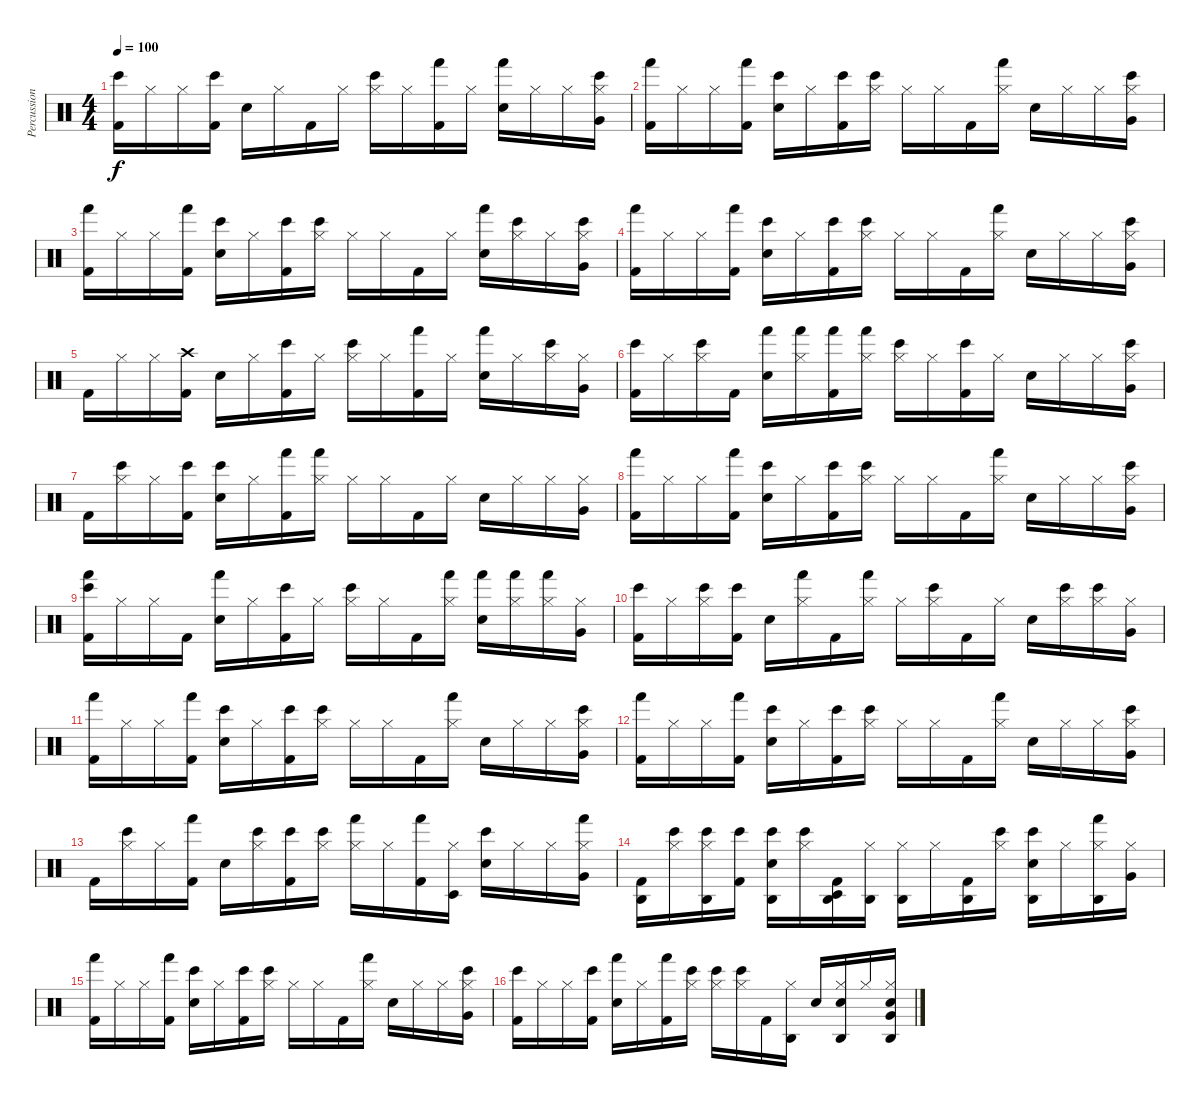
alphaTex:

\track ("Percussions" "Percussion") {instrument percussion}
\staff {score}
\articulation defaults
\ts (4 4)
\tempo 100
\clef neutral
\ks c
("Kick (hit) 2" "Bongo High (hit)").16{dy f} "Hi-Hat (closed)".16 "Hi-Hat (closed)".16 ("Kick (hit) 2" "Bongo High (hit)").16 "Electric Snare (hit)".16 "Hi-Hat (closed)".16 "Kick (hit) 2".16 "Hi-Hat (closed)".16 ("Hi-Hat (closed)" "Bongo High (hit)").16 "Hi-Hat (closed)".16 ("Kick (hit) 2" "Hand (hit)").16 "Hi-Hat (closed)".16 ("Electric Snare (hit)" "Hand (hit)").16 "Hi-Hat (closed)".16 "Hi-Hat (closed)".16 ("Hi-Hat (closed)" "Bongo High (hit)" "Very Low Tom (hit)").16 |
("Kick (hit) 2" "Hand (hit)").16 "Hi-Hat (closed)".16 "Hi-Hat (closed)".16 ("Kick (hit) 2" "Hand (hit)").16 ("Electric Snare (hit)" "Bongo High (hit)").16 "Hi-Hat (closed)".16 ("Kick (hit) 2" "Bongo High (hit)").16 ("Hi-Hat (closed)" "Bongo High (hit)").16 "Hi-Hat (closed)".16 "Hi-Hat (closed)".16 "Kick (hit) 2".16 ("Hi-Hat (closed)" "Hand (hit)").16 "Electric Snare (hit)".16 "Hi-Hat (closed)".16 "Hi-Hat (closed)".16 ("Hi-Hat (closed)" "Bongo High (hit)" "Very Low Tom (hit)").16 |
("Kick (hit) 2" "Hand (hit)").16 "Hi-Hat (closed)".16 "Hi-Hat (closed)".16 ("Kick (hit) 2" "Hand (hit)").16 ("Electric Snare (hit)" "Bongo High (hit)").16 "Hi-Hat (closed)".16 ("Kick (hit) 2" "Bongo High (hit)").16 ("Hi-Hat (closed)" "Bongo High (hit)").16 "Hi-Hat (closed)".16 "Hi-Hat (closed)".16 "Kick (hit) 2".16 "Hi-Hat (closed)".16 ("Electric Snare (hit)" "Hand (hit)").16 ("Hi-Hat (closed)" "Bongo High (hit)").16 "Hi-Hat (closed)".16 ("Hi-Hat (closed)" "Bongo High (hit)" "Very Low Tom (hit)").16 |
("Kick (hit) 2" "Hand (hit)").16 "Hi-Hat (closed)".16 "Hi-Hat (closed)".16 ("Kick (hit) 2" "Hand (hit)").16 ("Electric Snare (hit)" "Bongo High (hit)").16 "Hi-Hat (closed)".16 ("Kick (hit) 2" "Bongo High (hit)").16 ("Hi-Hat (closed)" "Bongo High (hit)").16 "Hi-Hat (closed)".16 "Hi-Hat (closed)".16 "Kick (hit) 2".16 ("Hi-Hat (closed)" "Hand (hit)").16 "Electric Snare (hit)".16 "Hi-Hat (closed)".16 "Hi-Hat (closed)".16 ("Hi-Hat (closed)" "Bongo High (hit)" "Very Low Tom (hit)").16 |
"Kick (hit) 2".16 "Hi-Hat (closed)".16 "Hi-Hat (closed)".16 ("Kick (hit) 2" "Crash high (hit)").16 "Electric Snare (hit)".16 "Hi-Hat (closed)".16 ("Kick (hit) 2" "Bongo High (hit)").16 "Hi-Hat (closed)".16 ("Hi-Hat (closed)" "Bongo High (hit)").16 "Hi-Hat (closed)".16 ("Kick (hit) 2" "Hand (hit)").16 "Hi-Hat (closed)".16 ("Electric Snare (hit)" "Hand (hit)").16 "Hi-Hat (closed)".16 ("Hi-Hat (closed)" "Bongo High (hit)").16 ("Hi-Hat (closed)" "Very Low Tom (hit)").16 |
("Kick (hit) 2" "Bongo High (hit)").16 "Hi-Hat (closed)".16 ("Hi-Hat (closed)" "Bongo High (hit)").16 "Kick (hit) 2".16 ("Electric Snare (hit)" "Hand (hit)").16 ("Hi-Hat (closed)" "Hand (hit)").16 ("Kick (hit) 2" "Hand (hit)").16 ("Hi-Hat (closed)" "Hand (hit)").16 ("Hi-Hat (closed)" "Bongo High (hit)").16 "Hi-Hat (closed)".16 ("Kick (hit) 2" "Bongo High (hit)").16 "Hi-Hat (closed)".16 "Electric Snare (hit)".16 "Hi-Hat (closed)".16 "Hi-Hat (closed)".16 ("Hi-Hat (closed)" "Bongo High (hit)" "Very Low Tom (hit)").16 |
"Kick (hit) 2".16 ("Hi-Hat (closed)" "Bongo High (hit)").16 "Hi-Hat (closed)".16 ("Kick (hit) 2" "Bongo High (hit)").16 ("Electric Snare (hit)" "Bongo High (hit)").16 "Hi-Hat (closed)".16 ("Kick (hit) 2" "Hand (hit)").16 ("Hi-Hat (closed)" "Hand (hit)").16 "Hi-Hat (closed)".16 "Hi-Hat (closed)".16 "Kick (hit) 2".16 "Hi-Hat (closed)".16 "Electric Snare (hit)".16 "Hi-Hat (closed)".16 "Hi-Hat (closed)".16 ("Hi-Hat (closed)" "Very Low Tom (hit)").16 |
("Kick (hit) 2" "Hand (hit)").16 "Hi-Hat (closed)".16 "Hi-Hat (closed)".16 ("Kick (hit) 2" "Hand (hit)").16 ("Electric Snare (hit)" "Bongo High (hit)").16 "Hi-Hat (closed)".16 ("Kick (hit) 2" "Bongo High (hit)").16 ("Hi-Hat (closed)" "Bongo High (hit)").16 "Hi-Hat (closed)".16 "Hi-Hat (closed)".16 "Kick (hit) 2".16 ("Hi-Hat (closed)" "Hand (hit)").16 "Electric Snare (hit)".16 "Hi-Hat (closed)".16 "Hi-Hat (closed)".16 ("Hi-Hat (closed)" "Bongo High (hit)" "Very Low Tom (hit)").16 |
("Kick (hit) 2" "Bongo High (hit)" "Hand (hit)").16 "Hi-Hat (closed)".16 "Hi-Hat (closed)".16 "Kick (hit) 2".16 ("Electric Snare (hit)" "Hand (hit)").16 "Hi-Hat (closed)".16 ("Kick (hit) 2" "Bongo High (hit)").16 "Hi-Hat (closed)".16 ("Hi-Hat (closed)" "Bongo High (hit)").16 "Hi-Hat (closed)".16 "Kick (hit) 2".16 ("Hi-Hat (closed)" "Hand (hit)").16 ("Electric Snare (hit)" "Hand (hit)").16 ("Hi-Hat (closed)" "Hand (hit)").16 ("Hi-Hat (closed)" "Hand (hit)").16 ("Hi-Hat (closed)" "Very Low Tom (hit)").16 |
("Kick (hit) 2" "Bongo High (hit)").16 "Hi-Hat (closed)".16 ("Hi-Hat (closed)" "Bongo High (hit)").16 ("Kick (hit) 2" "Bongo High (hit)").16 "Electric Snare (hit)".16 ("Hi-Hat (closed)" "Hand (hit)").16 "Kick (hit) 2".16 ("Hi-Hat (closed)" "Hand (hit)").16 "Hi-Hat (closed)".16 ("Hi-Hat (closed)" "Bongo High (hit)").16 "Kick (hit) 2".16 "Hi-Hat (closed)".16 "Electric Snare (hit)".16 ("Hi-Hat (closed)" "Bongo High (hit)").16 ("Hi-Hat (closed)" "Bongo High (hit)").16 ("Hi-Hat (closed)" "Very Low Tom (hit)").16 |
("Kick (hit) 2" "Hand (hit)").16 "Hi-Hat (closed)".16 "Hi-Hat (closed)".16 ("Kick (hit) 2" "Hand (hit)").16 ("Electric Snare (hit)" "Bongo High (hit)").16 "Hi-Hat (closed)".16 ("Kick (hit) 2" "Bongo High (hit)").16 ("Hi-Hat (closed)" "Bongo High (hit)").16 "Hi-Hat (closed)".16 "Hi-Hat (closed)".16 "Kick (hit) 2".16 ("Hi-Hat (closed)" "Hand (hit)").16 "Electric Snare (hit)".16 "Hi-Hat (closed)".16 "Hi-Hat (closed)".16 ("Hi-Hat (closed)" "Bongo High (hit)" "Very Low Tom (hit)").16 |
("Kick (hit) 2" "Hand (hit)").16 "Hi-Hat (closed)".16 "Hi-Hat (closed)".16 ("Kick (hit) 2" "Hand (hit)").16 ("Electric Snare (hit)" "Bongo High (hit)").16 "Hi-Hat (closed)".16 ("Kick (hit) 2" "Bongo High (hit)").16 ("Hi-Hat (closed)" "Bongo High (hit)").16 "Hi-Hat (closed)".16 "Hi-Hat (closed)".16 "Kick (hit) 2".16 ("Hi-Hat (closed)" "Hand (hit)").16 "Electric Snare (hit)".16 "Hi-Hat (closed)".16 "Hi-Hat (closed)".16 ("Hi-Hat (closed)" "Bongo High (hit)" "Very Low Tom (hit)").16 |
"Kick (hit) 2".16 ("Hi-Hat (closed)" "Bongo High (hit)").16 "Hi-Hat (closed)".16 ("Kick (hit) 2" "Hand (hit)").16 "Electric Snare (hit)".16 ("Hi-Hat (closed)" "Bongo High (hit)").16 ("Kick (hit) 2" "Bongo High (hit)").16 ("Hi-Hat (closed)" "Bongo High (hit)").16 ("Hi-Hat (closed)" "Hand (hit)").16 "Hi-Hat (closed)".16 ("Kick (hit) 2" "Hand (hit)").16 ("Hi-Hat (closed)" "Timbale low (hit)").16 ("Electric Snare (hit)" "Bongo High (hit)").16 "Hi-Hat (closed)".16 "Hi-Hat (closed)".16 ("Hi-Hat (closed)" "Hand (hit)" "Very Low Tom (hit)").16 |
("Kick (hit) 2" "Agogo high (hit)").16 ("Hi-Hat (closed)" "Bongo High (hit)").16 ("Hi-Hat (closed)" "Bongo High (hit)" "Agogo high (hit)").16 ("Kick (hit) 2" "Bongo High (hit)").16 ("Electric Snare (hit)" "Bongo High (hit)" "Agogo high (hit)").16 ("Hi-Hat (closed)" "Bongo High (hit)").16 ("Kick (hit) 2" "Timbale low (hit)" "Agogo high (hit)").16 ("Hi-Hat (closed)" "Agogo high (hit)").16 ("Hi-Hat (closed)" "Agogo high (hit)").16 "Hi-Hat (closed)".16 ("Kick (hit) 2" "Agogo high (hit)").16 ("Hi-Hat (closed)" "Bongo High (hit)").16 ("Electric Snare (hit)" "Bongo High (hit)" "Agogo high (hit)").16 "Hi-Hat (closed)".16 ("Hi-Hat (closed)" "Hand (hit)" "Agogo high (hit)").16 ("Hi-Hat (closed)" "Very Low Tom (hit)").16 |
("Kick (hit) 2" "Hand (hit)").16 "Hi-Hat (closed)".16 "Hi-Hat (closed)".16 ("Kick (hit) 2" "Hand (hit)").16 ("Electric Snare (hit)" "Bongo High (hit)").16 "Hi-Hat (closed)".16 ("Kick (hit) 2" "Bongo High (hit)").16 ("Hi-Hat (closed)" "Bongo High (hit)").16 "Hi-Hat (closed)".16 "Hi-Hat (closed)".16 "Kick (hit) 2".16 ("Hi-Hat (closed)" "Hand (hit)").16 "Electric Snare (hit)".16 "Hi-Hat (closed)".16 "Hi-Hat (closed)".16 ("Hi-Hat (closed)" "Bongo High (hit)" "Very Low Tom (hit)").16 |
("Kick (hit) 2" "Bongo High (hit)").16 "Hi-Hat (closed)".16 "Hi-Hat (closed)".16 ("Kick (hit) 2" "Bongo High (hit)").16 ("Electric Snare (hit)" "Hand (hit)").16 "Hi-Hat (closed)".16 ("Kick (hit) 2" "Hand (hit)").16 ("Hi-Hat (closed)" "Bongo High (hit)").16 ("Hi-Hat (closed)" "Bongo High (hit)").16 ("Hi-Hat (closed)" "Bongo High (hit)").16 "Kick (hit) 2".16 ("Hi-Hat (closed)" "Agogo high (hit)").16 "Electric Snare (hit)".16 ("Hi-Hat (closed)" "Agogo high (hit)" "Electric Snare (hit)").16 "Hi-Hat (closed)".16 ("Hi-Hat (closed)" "Agogo high (hit)" "Electric Snare (hit)" "Very Low Tom (hit)").16
